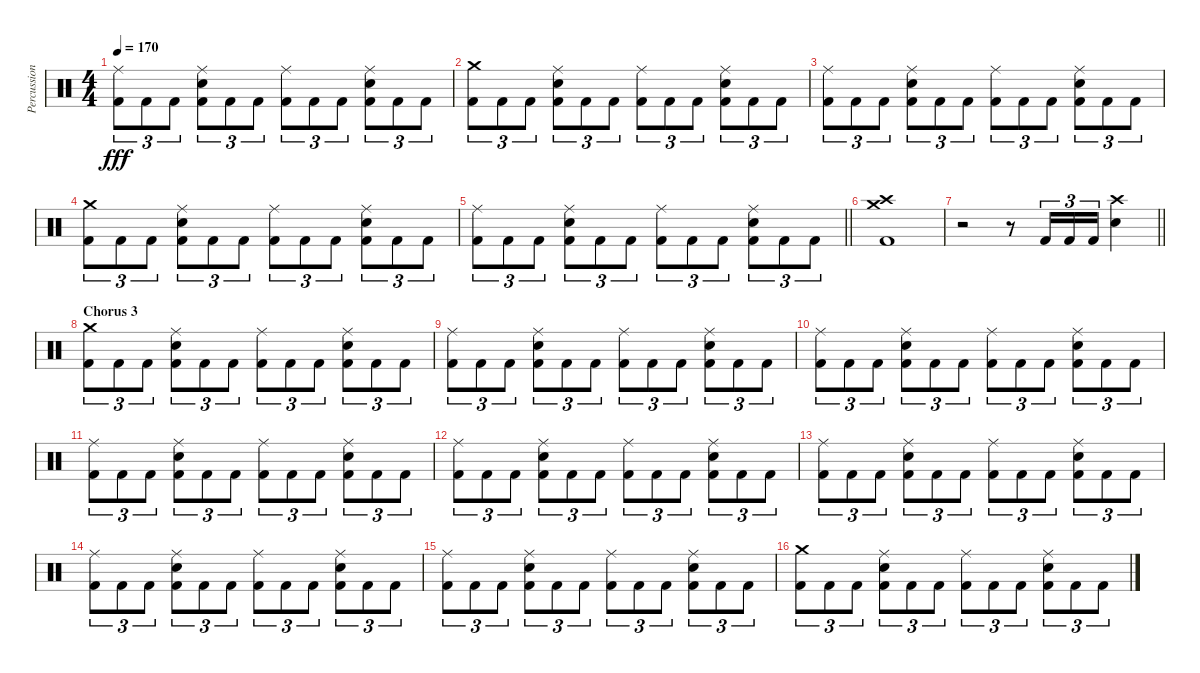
\track ("Percussion" "Percussion") {instrument percussion}
\staff {score}
\articulation defaults
\ts (4 4)
\tempo 170
\clef neutral
\ks c
("Ride (middle)" "Kick (hit) 2").8{tu (3 2) dy fff} "Kick (hit) 2".8{tu (3 2)} "Kick (hit) 2".8{tu (3 2)} ("Ride (middle)" "Snare (hit) 2" "Kick (hit) 2").8{tu (3 2)} "Kick (hit) 2".8{tu (3 2)} "Kick (hit) 2".8{tu (3 2)} ("Ride (middle)" "Kick (hit) 2").8{tu (3 2)} "Kick (hit) 2".8{tu (3 2)} "Kick (hit) 2".8{tu (3 2)} ("Ride (middle)" "Snare (hit) 2" "Kick (hit) 2").8{tu (3 2)} "Kick (hit) 2".8{tu (3 2)} "Kick (hit) 2".8{tu (3 2)} |
("Crash medium (hit)" "Kick (hit) 2").8{tu (3 2)} "Kick (hit) 2".8{tu (3 2)} "Kick (hit) 2".8{tu (3 2)} ("Ride (middle)" "Snare (hit) 2" "Kick (hit) 2").8{tu (3 2)} "Kick (hit) 2".8{tu (3 2)} "Kick (hit) 2".8{tu (3 2)} ("Ride (middle)" "Kick (hit) 2").8{tu (3 2)} "Kick (hit) 2".8{tu (3 2)} "Kick (hit) 2".8{tu (3 2)} ("Ride (middle)" "Snare (hit) 2" "Kick (hit) 2").8{tu (3 2)} "Kick (hit) 2".8{tu (3 2)} "Kick (hit) 2".8{tu (3 2)} |
("Ride (middle)" "Kick (hit) 2").8{tu (3 2)} "Kick (hit) 2".8{tu (3 2)} "Kick (hit) 2".8{tu (3 2)} ("Ride (middle)" "Snare (hit) 2" "Kick (hit) 2").8{tu (3 2)} "Kick (hit) 2".8{tu (3 2)} "Kick (hit) 2".8{tu (3 2)} ("Ride (middle)" "Kick (hit) 2").8{tu (3 2)} "Kick (hit) 2".8{tu (3 2)} "Kick (hit) 2".8{tu (3 2)} ("Ride (middle)" "Snare (hit) 2" "Kick (hit) 2").8{tu (3 2)} "Kick (hit) 2".8{tu (3 2)} "Kick (hit) 2".8{tu (3 2)} |
("Crash medium (hit)" "Kick (hit) 2").8{tu (3 2)} "Kick (hit) 2".8{tu (3 2)} "Kick (hit) 2".8{tu (3 2)} ("Ride (middle)" "Snare (hit) 2" "Kick (hit) 2").8{tu (3 2)} "Kick (hit) 2".8{tu (3 2)} "Kick (hit) 2".8{tu (3 2)} ("Ride (middle)" "Kick (hit) 2").8{tu (3 2)} "Kick (hit) 2".8{tu (3 2)} "Kick (hit) 2".8{tu (3 2)} ("Ride (middle)" "Snare (hit) 2" "Kick (hit) 2").8{tu (3 2)} "Kick (hit) 2".8{tu (3 2)} "Kick (hit) 2".8{tu (3 2)} |
\barLineRight lightlight
("Ride (middle)" "Kick (hit) 2").8{tu (3 2)} "Kick (hit) 2".8{tu (3 2)} "Kick (hit) 2".8{tu (3 2)} ("Ride (middle)" "Snare (hit) 2" "Kick (hit) 2").8{tu (3 2)} "Kick (hit) 2".8{tu (3 2)} "Kick (hit) 2".8{tu (3 2)} ("Ride (middle)" "Kick (hit) 2").8{tu (3 2)} "Kick (hit) 2".8{tu (3 2)} "Kick (hit) 2".8{tu (3 2)} ("Ride (middle)" "Snare (hit) 2" "Kick (hit) 2").8{tu (3 2)} "Kick (hit) 2".8{tu (3 2)} "Kick (hit) 2".8{tu (3 2)} |
("Crash medium (hit)" "Crash high (hit)" "Kick (hit) 2").1 |
\barLineRight lightlight
r.2 r.8 "Kick (hit) 2".16{tu (3 2)} "Kick (hit) 2".16{tu (3 2)} "Kick (hit) 2".16{tu (3 2)} ("Crash high (hit)" "Electric Snare (hit)").4 |
\section ("" "Chorus 3")
("Crash medium (hit)" "Kick (hit) 2").8{tu (3 2)} "Kick (hit) 2".8{tu (3 2)} "Kick (hit) 2".8{tu (3 2)} ("Ride (middle)" "Snare (hit) 2" "Kick (hit) 2").8{tu (3 2)} "Kick (hit) 2".8{tu (3 2)} "Kick (hit) 2".8{tu (3 2)} ("Ride (middle)" "Kick (hit) 2").8{tu (3 2)} "Kick (hit) 2".8{tu (3 2)} "Kick (hit) 2".8{tu (3 2)} ("Ride (middle)" "Snare (hit) 2" "Kick (hit) 2").8{tu (3 2)} "Kick (hit) 2".8{tu (3 2)} "Kick (hit) 2".8{tu (3 2)} |
("Ride (middle)" "Kick (hit) 2").8{tu (3 2)} "Kick (hit) 2".8{tu (3 2)} "Kick (hit) 2".8{tu (3 2)} ("Ride (middle)" "Snare (hit) 2" "Kick (hit) 2").8{tu (3 2)} "Kick (hit) 2".8{tu (3 2)} "Kick (hit) 2".8{tu (3 2)} ("Ride (middle)" "Kick (hit) 2").8{tu (3 2)} "Kick (hit) 2".8{tu (3 2)} "Kick (hit) 2".8{tu (3 2)} ("Ride (middle)" "Snare (hit) 2" "Kick (hit) 2").8{tu (3 2)} "Kick (hit) 2".8{tu (3 2)} "Kick (hit) 2".8{tu (3 2)} |
("Ride (middle)" "Kick (hit) 2").8{tu (3 2)} "Kick (hit) 2".8{tu (3 2)} "Kick (hit) 2".8{tu (3 2)} ("Ride (middle)" "Snare (hit) 2" "Kick (hit) 2").8{tu (3 2)} "Kick (hit) 2".8{tu (3 2)} "Kick (hit) 2".8{tu (3 2)} ("Ride (middle)" "Kick (hit) 2").8{tu (3 2)} "Kick (hit) 2".8{tu (3 2)} "Kick (hit) 2".8{tu (3 2)} ("Ride (middle)" "Snare (hit) 2" "Kick (hit) 2").8{tu (3 2)} "Kick (hit) 2".8{tu (3 2)} "Kick (hit) 2".8{tu (3 2)} |
("Ride (middle)" "Kick (hit) 2").8{tu (3 2)} "Kick (hit) 2".8{tu (3 2)} "Kick (hit) 2".8{tu (3 2)} ("Ride (middle)" "Snare (hit) 2" "Kick (hit) 2").8{tu (3 2)} "Kick (hit) 2".8{tu (3 2)} "Kick (hit) 2".8{tu (3 2)} ("Ride (middle)" "Kick (hit) 2").8{tu (3 2)} "Kick (hit) 2".8{tu (3 2)} "Kick (hit) 2".8{tu (3 2)} ("Ride (middle)" "Snare (hit) 2" "Kick (hit) 2").8{tu (3 2)} "Kick (hit) 2".8{tu (3 2)} "Kick (hit) 2".8{tu (3 2)} |
("Ride (middle)" "Kick (hit) 2").8{tu (3 2)} "Kick (hit) 2".8{tu (3 2)} "Kick (hit) 2".8{tu (3 2)} ("Ride (middle)" "Snare (hit) 2" "Kick (hit) 2").8{tu (3 2)} "Kick (hit) 2".8{tu (3 2)} "Kick (hit) 2".8{tu (3 2)} ("Ride (middle)" "Kick (hit) 2").8{tu (3 2)} "Kick (hit) 2".8{tu (3 2)} "Kick (hit) 2".8{tu (3 2)} ("Ride (middle)" "Snare (hit) 2" "Kick (hit) 2").8{tu (3 2)} "Kick (hit) 2".8{tu (3 2)} "Kick (hit) 2".8{tu (3 2)} |
("Ride (middle)" "Kick (hit) 2").8{tu (3 2)} "Kick (hit) 2".8{tu (3 2)} "Kick (hit) 2".8{tu (3 2)} ("Ride (middle)" "Snare (hit) 2" "Kick (hit) 2").8{tu (3 2)} "Kick (hit) 2".8{tu (3 2)} "Kick (hit) 2".8{tu (3 2)} ("Ride (middle)" "Kick (hit) 2").8{tu (3 2)} "Kick (hit) 2".8{tu (3 2)} "Kick (hit) 2".8{tu (3 2)} ("Ride (middle)" "Snare (hit) 2" "Kick (hit) 2").8{tu (3 2)} "Kick (hit) 2".8{tu (3 2)} "Kick (hit) 2".8{tu (3 2)} |
("Ride (middle)" "Kick (hit) 2").8{tu (3 2)} "Kick (hit) 2".8{tu (3 2)} "Kick (hit) 2".8{tu (3 2)} ("Ride (middle)" "Snare (hit) 2" "Kick (hit) 2").8{tu (3 2)} "Kick (hit) 2".8{tu (3 2)} "Kick (hit) 2".8{tu (3 2)} ("Ride (middle)" "Kick (hit) 2").8{tu (3 2)} "Kick (hit) 2".8{tu (3 2)} "Kick (hit) 2".8{tu (3 2)} ("Ride (middle)" "Snare (hit) 2" "Kick (hit) 2").8{tu (3 2)} "Kick (hit) 2".8{tu (3 2)} "Kick (hit) 2".8{tu (3 2)} |
("Ride (middle)" "Kick (hit) 2").8{tu (3 2)} "Kick (hit) 2".8{tu (3 2)} "Kick (hit) 2".8{tu (3 2)} ("Ride (middle)" "Snare (hit) 2" "Kick (hit) 2").8{tu (3 2)} "Kick (hit) 2".8{tu (3 2)} "Kick (hit) 2".8{tu (3 2)} ("Ride (middle)" "Kick (hit) 2").8{tu (3 2)} "Kick (hit) 2".8{tu (3 2)} "Kick (hit) 2".8{tu (3 2)} ("Ride (middle)" "Snare (hit) 2" "Kick (hit) 2").8{tu (3 2)} "Kick (hit) 2".8{tu (3 2)} "Kick (hit) 2".8{tu (3 2)} |
("Crash medium (hit)" "Kick (hit) 2").8{tu (3 2)} "Kick (hit) 2".8{tu (3 2)} "Kick (hit) 2".8{tu (3 2)} ("Ride (middle)" "Snare (hit) 2" "Kick (hit) 2").8{tu (3 2)} "Kick (hit) 2".8{tu (3 2)} "Kick (hit) 2".8{tu (3 2)} ("Ride (middle)" "Kick (hit) 2").8{tu (3 2)} "Kick (hit) 2".8{tu (3 2)} "Kick (hit) 2".8{tu (3 2)} ("Ride (middle)" "Snare (hit) 2" "Kick (hit) 2").8{tu (3 2)} "Kick (hit) 2".8{tu (3 2)} "Kick (hit) 2".8{tu (3 2)}
